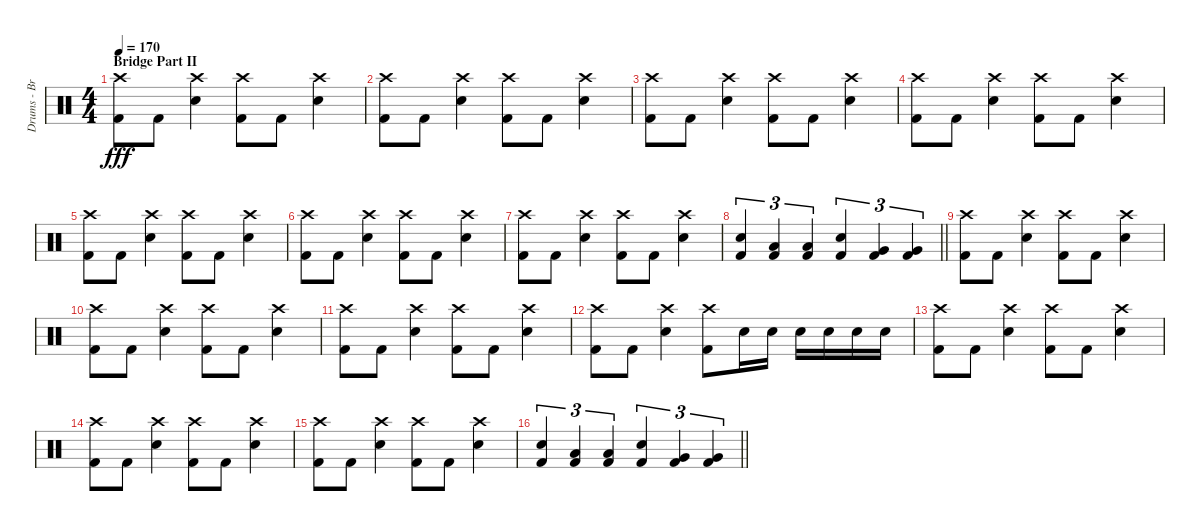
\track ("Drums - Brandon" "Drums - Br") {instrument percussion}
\staff {score}
\articulation defaults
\ts (4 4)
\section ("" "Bridge Part II")
\tempo 170
\clef neutral
\ks c
("Crash high (hit)" "Kick (hit) 2").8{dy fff} "Kick (hit) 2".8 ("Crash high (hit)" "Electric Snare (hit)").4 ("Crash high (hit)" "Kick (hit) 2").8 "Kick (hit) 2".8 ("Crash high (hit)" "Electric Snare (hit)").4 |
("Crash high (hit)" "Kick (hit) 2").8 "Kick (hit) 2".8 ("Crash high (hit)" "Electric Snare (hit)").4 ("Crash high (hit)" "Kick (hit) 2").8 "Kick (hit) 2".8 ("Crash high (hit)" "Electric Snare (hit)").4 |
("Crash high (hit)" "Kick (hit) 2").8 "Kick (hit) 2".8 ("Crash high (hit)" "Electric Snare (hit)").4 ("Crash high (hit)" "Kick (hit) 2").8 "Kick (hit) 2".8 ("Crash high (hit)" "Electric Snare (hit)").4 |
("Crash high (hit)" "Kick (hit) 2").8 "Kick (hit) 2".8 ("Crash high (hit)" "Electric Snare (hit)").4 ("Crash high (hit)" "Kick (hit) 2").8 "Kick (hit) 2".8 ("Crash high (hit)" "Electric Snare (hit)").4 |
("Crash high (hit)" "Kick (hit) 2").8 "Kick (hit) 2".8 ("Crash high (hit)" "Electric Snare (hit)").4 ("Crash high (hit)" "Kick (hit) 2").8 "Kick (hit) 2".8 ("Crash high (hit)" "Electric Snare (hit)").4 |
("Crash high (hit)" "Kick (hit) 2").8 "Kick (hit) 2".8 ("Crash high (hit)" "Electric Snare (hit)").4 ("Crash high (hit)" "Kick (hit) 2").8 "Kick (hit) 2".8 ("Crash high (hit)" "Electric Snare (hit)").4 |
("Crash high (hit)" "Kick (hit) 2").8 "Kick (hit) 2".8 ("Crash high (hit)" "Electric Snare (hit)").4 ("Crash high (hit)" "Kick (hit) 2").8 "Kick (hit) 2".8 ("Crash high (hit)" "Electric Snare (hit)").4 |
\barLineRight lightlight
("Electric Snare (hit)" "Kick (hit) 2").4{tu (3 2)} ("Low Tom (hit)" "Kick (hit) 2").4{tu (3 2)} ("Low Tom (hit)" "Kick (hit) 2").4{tu (3 2)} ("Electric Snare (hit)" "Kick (hit) 2").4{tu (3 2)} ("Very Low Tom (hit)" "Kick (hit) 2").4{tu (3 2)} ("Very Low Tom (hit)" "Kick (hit) 2").4{tu (3 2)} |
("Crash high (hit)" "Kick (hit) 2").8 "Kick (hit) 2".8 ("Crash high (hit)" "Electric Snare (hit)").4 ("Crash high (hit)" "Kick (hit) 2").8 "Kick (hit) 2".8 ("Crash high (hit)" "Electric Snare (hit)").4 |
("Crash high (hit)" "Kick (hit) 2").8 "Kick (hit) 2".8 ("Crash high (hit)" "Electric Snare (hit)").4 ("Crash high (hit)" "Kick (hit) 2").8 "Kick (hit) 2".8 ("Crash high (hit)" "Electric Snare (hit)").4 |
("Crash high (hit)" "Kick (hit) 2").8 "Kick (hit) 2".8 ("Crash high (hit)" "Electric Snare (hit)").4 ("Crash high (hit)" "Kick (hit) 2").8 "Kick (hit) 2".8 ("Crash high (hit)" "Electric Snare (hit)").4 |
("Crash high (hit)" "Kick (hit) 2").8 "Kick (hit) 2".8 ("Crash high (hit)" "Electric Snare (hit)").4 ("Crash high (hit)" "Kick (hit) 2").8 "Electric Snare (hit)".16 "Electric Snare (hit)".16 "Electric Snare (hit)".16 "Electric Snare (hit)".16 "Electric Snare (hit)".16 "Electric Snare (hit)".16 |
("Crash high (hit)" "Kick (hit) 2").8 "Kick (hit) 2".8 ("Crash high (hit)" "Electric Snare (hit)").4 ("Crash high (hit)" "Kick (hit) 2").8 "Kick (hit) 2".8 ("Crash high (hit)" "Electric Snare (hit)").4 |
("Crash high (hit)" "Kick (hit) 2").8 "Kick (hit) 2".8 ("Crash high (hit)" "Electric Snare (hit)").4 ("Crash high (hit)" "Kick (hit) 2").8 "Kick (hit) 2".8 ("Crash high (hit)" "Electric Snare (hit)").4 |
("Crash high (hit)" "Kick (hit) 2").8 "Kick (hit) 2".8 ("Crash high (hit)" "Electric Snare (hit)").4 ("Crash high (hit)" "Kick (hit) 2").8 "Kick (hit) 2".8 ("Crash high (hit)" "Electric Snare (hit)").4 |
\barLineRight lightlight
("Electric Snare (hit)" "Kick (hit) 2").4{tu (3 2)} ("Low Tom (hit)" "Kick (hit) 2").4{tu (3 2)} ("Low Tom (hit)" "Kick (hit) 2").4{tu (3 2)} ("Electric Snare (hit)" "Kick (hit) 2").4{tu (3 2)} ("Very Low Tom (hit)" "Kick (hit) 2").4{tu (3 2)} ("Very Low Tom (hit)" "Kick (hit) 2").4{tu (3 2)}
